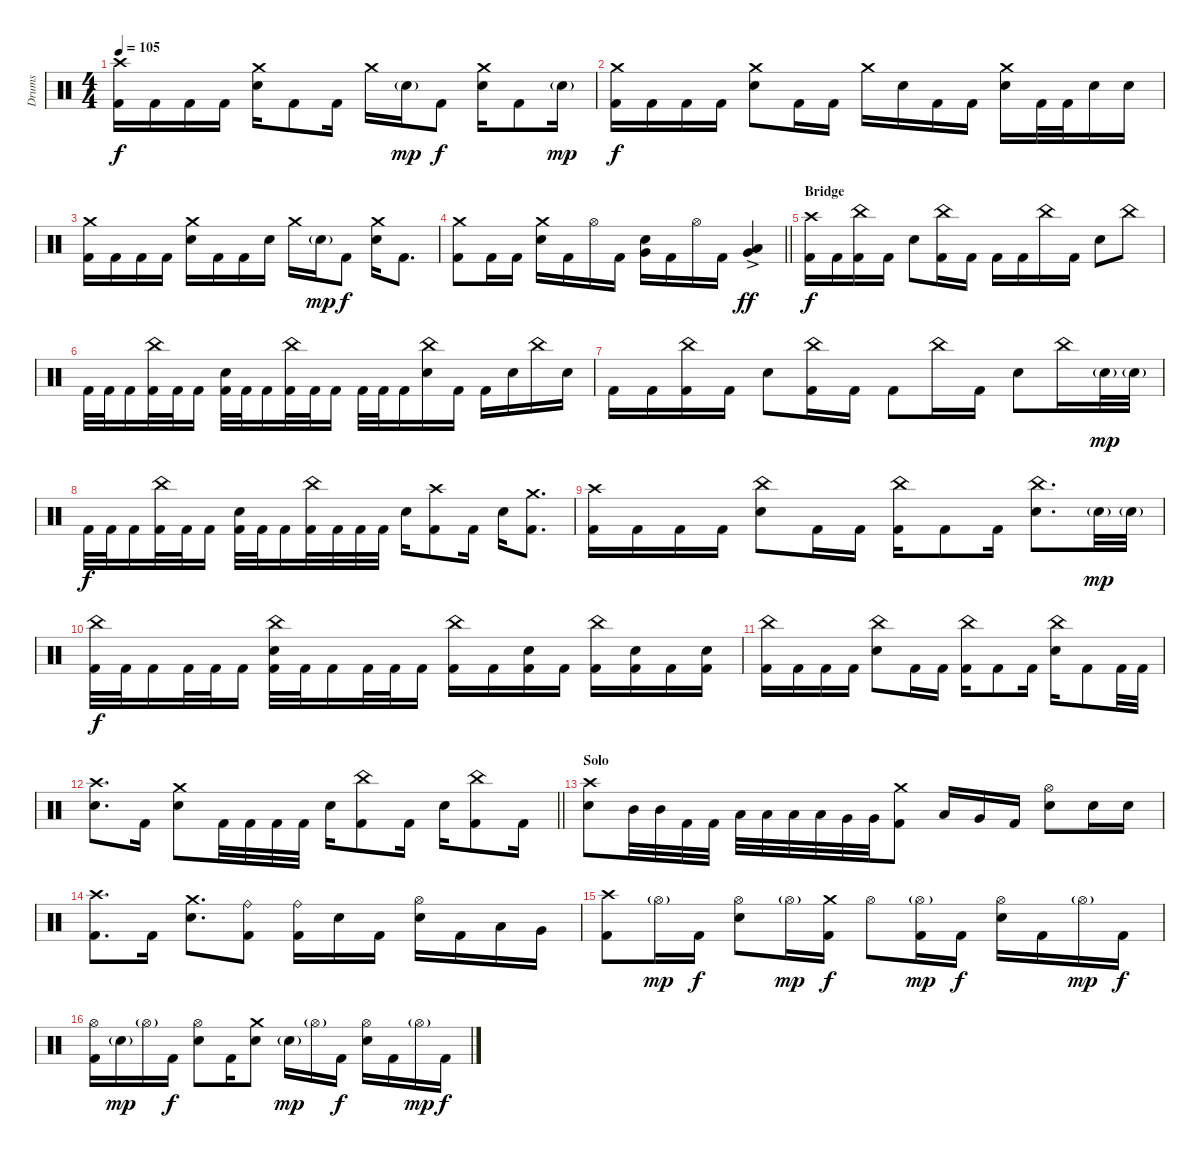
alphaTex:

\track ("Drums" "Drums") {instrument percussion}
\staff {score}
\articulation defaults
\ts (4 4)
\tempo 105
\clef neutral
\ks c
("Crash high (hit)" "Kick (hit) 2").16{dy f} "Kick (hit) 2".16 "Kick (hit) 2".16 "Kick (hit) 2".16 ("Crash medium (hit)" "Electric Snare (hit)").16 "Kick (hit) 2".8 "Kick (hit) 2".16 "Crash medium (hit)".16 "Electric Snare (hit)"{g}.16{dy mp} "Kick (hit) 2".8{dy f} ("Crash medium (hit)" "Electric Snare (hit)").16 "Kick (hit) 2".8 "Electric Snare (hit)"{g}.16{dy mp} |
("Crash medium (hit)" "Kick (hit) 2").16{dy f} "Kick (hit) 2".16 "Kick (hit) 2".16 "Kick (hit) 2".16 ("Crash medium (hit)" "Electric Snare (hit)").8 "Kick (hit) 2".16 "Kick (hit) 2".16 "Crash medium (hit)".16 "Electric Snare (hit)".16 "Kick (hit) 2".16 "Kick (hit) 2".16 ("Crash medium (hit)" "Electric Snare (hit)").16 "Kick (hit) 2".32 "Kick (hit) 2".32 "Electric Snare (hit)".16 "Electric Snare (hit)".16 |
("Crash medium (hit)" "Kick (hit) 2").16 "Kick (hit) 2".16 "Kick (hit) 2".16 "Kick (hit) 2".16 ("Crash medium (hit)" "Electric Snare (hit)").16 "Kick (hit) 2".16 "Kick (hit) 2".16 "Electric Snare (hit)".16 "Crash medium (hit)".16 "Electric Snare (hit)"{g}.16{dy mp} "Kick (hit) 2".8{dy f} ("Crash medium (hit)" "Electric Snare (hit)").16 "Kick (hit) 2".8{d} |
\barLineRight lightlight
("Crash medium (hit)" "Kick (hit) 2").8 "Kick (hit) 2".16 "Kick (hit) 2".16 ("Crash medium (hit)" "Electric Snare (hit)").16 "Kick (hit) 2".16 "Hi-Hat (open)".16 "Kick (hit) 2".16 ("Very Low Tom (hit)" "Electric Snare (hit)").16 "Kick (hit) 2".16 "Hi-Hat (open)".16 "Kick (hit) 2".16 ("Very Low Tom (hit)"{ac} "Low Floor Tom (hit)"{ac}).4{dy ff} |
\section ("" "Bridge")
("Crash high (hit)" "Kick (hit) 2").16{dy f} "Kick (hit) 2".16 ("China (hit)" "Kick (hit) 2").16 "Kick (hit) 2".16 "Electric Snare (hit)".8 ("China (hit)" "Kick (hit) 2").16 "Kick (hit) 2".16 "Kick (hit) 2".16 "Kick (hit) 2".16 "China (hit)".16 "Kick (hit) 2".16 "Electric Snare (hit)".8 "China (hit)".8 |
"Kick (hit) 2".32 "Kick (hit) 2".32 "Kick (hit) 2".16 ("China (hit)" "Kick (hit) 2").32 "Kick (hit) 2".32 "Kick (hit) 2".16 ("Electric Snare (hit)" "Kick (hit) 2").32 "Kick (hit) 2".32 "Kick (hit) 2".16 ("China (hit)" "Kick (hit) 2").32 "Kick (hit) 2".32 "Kick (hit) 2".16 "Kick (hit) 2".32 "Kick (hit) 2".32 "Kick (hit) 2".16 ("China (hit)" "Electric Snare (hit)").16 "Kick (hit) 2".16 "Kick (hit) 2".16 "Electric Snare (hit)".16 "China (hit)".16 "Electric Snare (hit)".16 |
"Kick (hit) 2".16 "Kick (hit) 2".16 ("China (hit)" "Kick (hit) 2").16 "Kick (hit) 2".16 "Electric Snare (hit)".8 ("China (hit)" "Kick (hit) 2").16 "Kick (hit) 2".16 "Kick (hit) 2".8 "China (hit)".16 "Kick (hit) 2".16 "Electric Snare (hit)".8 "China (hit)".16 "Electric Snare (hit)"{g}.32{dy mp} "Electric Snare (hit)"{g}.32 |
"Kick (hit) 2".32{dy f} "Kick (hit) 2".32 "Kick (hit) 2".16 ("China (hit)" "Kick (hit) 2").32 "Kick (hit) 2".32 "Kick (hit) 2".16 ("Electric Snare (hit)" "Kick (hit) 2").32 "Kick (hit) 2".32 "Kick (hit) 2".16 ("China (hit)" "Kick (hit) 2").32 "Kick (hit) 2".32 "Kick (hit) 2".32 "Kick (hit) 2".32 "Electric Snare (hit)".16 ("Crash high (hit)" "Kick (hit) 2").8 "Kick (hit) 2".16 "Electric Snare (hit)".16 ("Crash medium (hit)" "Kick (hit) 2").8{d} |
("Crash high (hit)" "Kick (hit) 2").16 "Kick (hit) 2".16 "Kick (hit) 2".16 "Kick (hit) 2".16 ("China (hit)" "Electric Snare (hit)").8 "Kick (hit) 2".16 "Kick (hit) 2".16 ("China (hit)" "Kick (hit) 2").16 "Kick (hit) 2".8 "Kick (hit) 2".16 ("China (hit)" "Electric Snare (hit)").8{d} "Electric Snare (hit)"{g}.32{dy mp} "Electric Snare (hit)"{g}.32 |
("China (hit)" "Kick (hit) 2").32{dy f} "Kick (hit) 2".32 "Kick (hit) 2".16 "Kick (hit) 2".32 "Kick (hit) 2".32 "Kick (hit) 2".16 ("China (hit)" "Electric Snare (hit)" "Kick (hit) 2").32 "Kick (hit) 2".32 "Kick (hit) 2".16 "Kick (hit) 2".32 "Kick (hit) 2".32 "Kick (hit) 2".16 ("China (hit)" "Kick (hit) 2").16 "Kick (hit) 2".16 ("Electric Snare (hit)" "Kick (hit) 2").16 "Kick (hit) 2".16 ("China (hit)" "Kick (hit) 2").16 ("Electric Snare (hit)" "Kick (hit) 2").16 "Kick (hit) 2".16 ("Electric Snare (hit)" "Kick (hit) 2").16 |
("China (hit)" "Kick (hit) 2").16 "Kick (hit) 2".16 "Kick (hit) 2".16 "Kick (hit) 2".16 ("China (hit)" "Electric Snare (hit)").8 "Kick (hit) 2".16 "Kick (hit) 2".16 ("China (hit)" "Kick (hit) 2").16 "Kick (hit) 2".8 "Kick (hit) 2".16 ("China (hit)" "Electric Snare (hit)").16 "Kick (hit) 2".8 "Kick (hit) 2".32 "Kick (hit) 2".32 |
\barLineRight lightlight
("Crash high (hit)" "Electric Snare (hit)").8{d} "Kick (hit) 2".16 ("Crash medium (hit)" "Electric Snare (hit)").8 "Kick (hit) 2".32 "Kick (hit) 2".32 "Kick (hit) 2".32 "Kick (hit) 2".32 "Electric Snare (hit)".16 ("China (hit)" "Kick (hit) 2").8 "Kick (hit) 2".16 "Electric Snare (hit)".16 ("China (hit)" "Kick (hit) 2").8 "Kick (hit) 2".16 |
\section ("" "Solo")
("Crash high (hit)" "Electric Snare (hit)").8 "Mid Tom (hit)".32 "Mid Tom (hit)".32 "Kick (hit) 2".32 "Kick (hit) 2".32 "Low Tom (hit)".32 "Low Tom (hit)".32 "Low Tom (hit)".32 "Low Tom (hit)".32 "Very Low Tom (hit)".32 "Very Low Tom (hit)".32 ("Crash medium (hit)" "Kick (hit) 2").8 "Low Tom (hit)".16 "Very Low Tom (hit)".16 "Kick (hit) 2".16 ("Hi-Hat (open)" "Electric Snare (hit)").8 "Electric Snare (hit)".16 "Electric Snare (hit)".16 |
("Crash high (hit)" "Kick (hit) 2").8{d} "Kick (hit) 2".16 ("Crash medium (hit)" "Electric Snare (hit)").8{d} ("Ride (bell)" "Kick (hit) 2").8 ("Ride (bell)" "Kick (hit) 2").16 "Electric Snare (hit)".16 "Kick (hit) 2".16 ("Hi-Hat (open)" "Electric Snare (hit)").16 "Kick (hit) 2".16 "Low Tom (hit)".16 "Very Low Tom (hit)".16 |
("Crash high (hit)" "Kick (hit) 2").8 "Hi-Hat (open)"{g}.16{dy mp} "Kick (hit) 2".16{dy f} ("Hi-Hat (open)" "Electric Snare (hit)").8 "Hi-Hat (open)"{g}.16{dy mp} ("Crash medium (hit)" "Kick (hit) 2").16{dy f} "Hi-Hat (open)".8 ("Hi-Hat (open)"{g} "Kick (hit) 2").16{dy mp} "Kick (hit) 2".16{dy f} ("Hi-Hat (open)" "Electric Snare (hit)").16 "Kick (hit) 2".16 "Hi-Hat (open)"{g}.16{dy mp} "Kick (hit) 2".16{dy f} |
("Hi-Hat (open)" "Kick (hit) 2").16 "Electric Snare (hit)"{g}.16{dy mp} "Hi-Hat (open)"{g}.16 "Kick (hit) 2".16{dy f} ("Hi-Hat (open)" "Electric Snare (hit)").8 "Kick (hit) 2".16 ("Crash medium (hit)" "Electric Snare (hit)").8 "Electric Snare (hit)"{g}.16{dy mp} "Hi-Hat (open)"{g}.16 "Kick (hit) 2".16{dy f} ("Hi-Hat (open)" "Electric Snare (hit)").16 "Kick (hit) 2".16 "Hi-Hat (open)"{g}.16{dy mp} "Kick (hit) 2".16{dy f}
